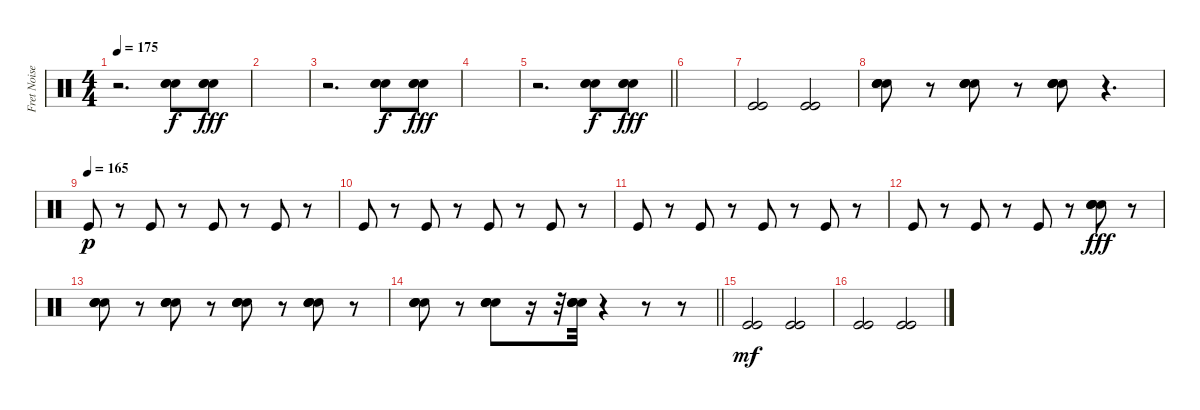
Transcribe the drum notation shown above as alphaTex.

\track ("Fret Noise / Percussion(corpus)" "Fret Noise") {instrument percussion}
\staff {score}
\articulation defaults
\ts (4 4)
\tempo 175
\clef neutral
\ks c
r.2{d dy fff} ("Snare (hit) 2" "Snare (hit) 2" "Snare (hit) 2").8{dy f} ("Snare (hit) 2" "Snare (hit) 2" "Snare (hit) 2").8{dy fff} |
|
r.2{d} ("Snare (hit) 2" "Snare (hit) 2" "Snare (hit) 2").8{dy f} ("Snare (hit) 2" "Snare (hit) 2" "Snare (hit) 2").8{dy fff} |
|
\barLineRight lightlight
r.2{d} ("Snare (hit) 2" "Snare (hit) 2" "Snare (hit) 2").8{dy f} ("Snare (hit) 2" "Snare (hit) 2" "Snare (hit) 2").8{dy fff} |
|
("Kick (hit)" "Kick (hit)").2 ("Kick (hit)" "Kick (hit)").2 |
("Snare (hit) 2" "Snare (hit) 2" "Snare (hit) 2" "Snare (hit) 2").8 r.8 ("Snare (hit) 2" "Snare (hit) 2" "Snare (hit) 2" "Snare (hit) 2").8 r.8 ("Snare (hit) 2" "Snare (hit) 2" "Snare (hit) 2" "Snare (hit) 2").8 r.4{d} |
\tempo (165)
"Kick (hit)".8{dy p} r.8 "Kick (hit)".8 r.8 "Kick (hit)".8 r.8 "Kick (hit)".8 r.8 |
"Kick (hit)".8 r.8 "Kick (hit)".8 r.8 "Kick (hit)".8 r.8 "Kick (hit)".8 r.8 |
"Kick (hit)".8 r.8 "Kick (hit)".8 r.8 "Kick (hit)".8 r.8 "Kick (hit)".8 r.8 |
"Kick (hit)".8 r.8 "Kick (hit)".8 r.8 "Kick (hit)".8 r.8 ("Snare (hit) 2" "Snare (hit) 2" "Snare (hit) 2" "Snare (hit) 2").8{dy fff} r.8 |
("Snare (hit) 2" "Snare (hit) 2" "Snare (hit) 2" "Snare (hit) 2").8 r.8 ("Snare (hit) 2" "Snare (hit) 2" "Snare (hit) 2" "Snare (hit) 2").8 r.8 ("Snare (hit) 2" "Snare (hit) 2" "Snare (hit) 2" "Snare (hit) 2").8 r.8 ("Snare (hit) 2" "Snare (hit) 2" "Snare (hit) 2" "Snare (hit) 2").8 r.8 |
\barLineRight lightlight
("Snare (hit) 2" "Snare (hit) 2" "Snare (hit) 2" "Snare (hit) 2").8 r.8 ("Snare (hit) 2" "Snare (hit) 2" "Snare (hit) 2" "Snare (hit) 2").8 r.16 r.32 ("Snare (hit) 2" "Snare (hit) 2" "Snare (hit) 2" "Snare (hit) 2").32 r.4 r.8 r.8 |
("Kick (hit)" "Kick (hit)").2{dy mf} ("Kick (hit)" "Kick (hit)").2 |
("Kick (hit)" "Kick (hit)").2 ("Kick (hit)" "Kick (hit)").2
